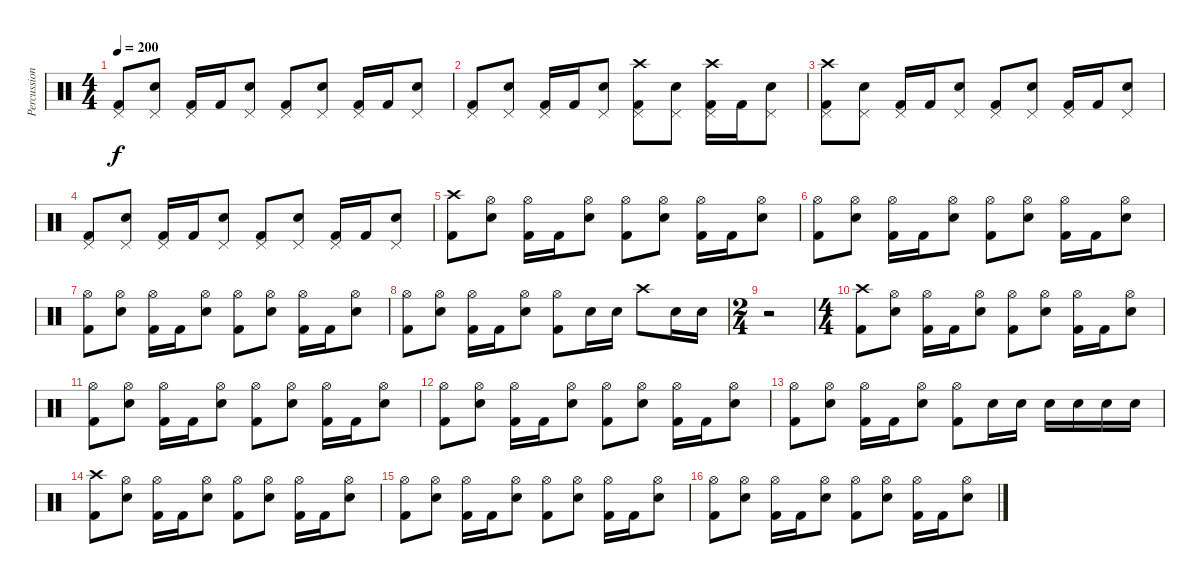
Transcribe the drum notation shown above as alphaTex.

\track ("Percussions" "Percussion") {instrument percussion}
\staff {score}
\articulation defaults
\ts (4 4)
\tempo 200
\clef neutral
\ks c
("Pedal Hi-Hat (hit)" "Kick (hit) 2").8{dy f} ("Pedal Hi-Hat (hit)" "Electric Snare (hit)").8 ("Pedal Hi-Hat (hit)" "Kick (hit) 2").16 "Kick (hit) 2".16 ("Pedal Hi-Hat (hit)" "Electric Snare (hit)").8 ("Pedal Hi-Hat (hit)" "Kick (hit) 2").8 ("Pedal Hi-Hat (hit)" "Electric Snare (hit)").8 ("Pedal Hi-Hat (hit)" "Kick (hit) 2").16 "Kick (hit) 2".16 ("Pedal Hi-Hat (hit)" "Electric Snare (hit)").8 |
("Pedal Hi-Hat (hit)" "Kick (hit) 2").8 ("Pedal Hi-Hat (hit)" "Electric Snare (hit)").8 ("Pedal Hi-Hat (hit)" "Kick (hit) 2").16 "Kick (hit) 2".16 ("Pedal Hi-Hat (hit)" "Electric Snare (hit)").8 ("Crash high (hit)" "Pedal Hi-Hat (hit)" "Kick (hit) 2").8 ("Pedal Hi-Hat (hit)" "Electric Snare (hit)").8 ("Crash high (hit)" "Pedal Hi-Hat (hit)" "Kick (hit) 2").16 "Kick (hit) 2".16 ("Pedal Hi-Hat (hit)" "Electric Snare (hit)").8 |
("Crash high (hit)" "Pedal Hi-Hat (hit)" "Kick (hit) 2").8 ("Pedal Hi-Hat (hit)" "Electric Snare (hit)").8 ("Pedal Hi-Hat (hit)" "Kick (hit) 2").16 "Kick (hit) 2".16 ("Pedal Hi-Hat (hit)" "Electric Snare (hit)").8 ("Pedal Hi-Hat (hit)" "Kick (hit) 2").8 ("Pedal Hi-Hat (hit)" "Electric Snare (hit)").8 ("Pedal Hi-Hat (hit)" "Kick (hit) 2").16 "Kick (hit) 2".16 ("Pedal Hi-Hat (hit)" "Electric Snare (hit)").8 |
("Pedal Hi-Hat (hit)" "Kick (hit) 2").8 ("Pedal Hi-Hat (hit)" "Electric Snare (hit)").8 ("Pedal Hi-Hat (hit)" "Kick (hit) 2").16 "Kick (hit) 2".16 ("Pedal Hi-Hat (hit)" "Electric Snare (hit)").8 ("Pedal Hi-Hat (hit)" "Kick (hit) 2").8 ("Pedal Hi-Hat (hit)" "Electric Snare (hit)").8 ("Pedal Hi-Hat (hit)" "Kick (hit) 2").16 "Kick (hit) 2".16 ("Pedal Hi-Hat (hit)" "Electric Snare (hit)").8 |
("Crash high (hit)" "Kick (hit) 2").8 ("Hi-Hat (open)" "Electric Snare (hit)").8 ("Hi-Hat (open)" "Kick (hit) 2").16 "Kick (hit) 2".16 ("Hi-Hat (open)" "Electric Snare (hit)").8 ("Hi-Hat (open)" "Kick (hit) 2").8 ("Hi-Hat (open)" "Electric Snare (hit)").8 ("Hi-Hat (open)" "Kick (hit) 2").16 "Kick (hit) 2".16 ("Hi-Hat (open)" "Electric Snare (hit)").8 |
("Hi-Hat (open)" "Kick (hit) 2").8 ("Hi-Hat (open)" "Electric Snare (hit)").8 ("Hi-Hat (open)" "Kick (hit) 2").16 "Kick (hit) 2".16 ("Hi-Hat (open)" "Electric Snare (hit)").8 ("Hi-Hat (open)" "Kick (hit) 2").8 ("Hi-Hat (open)" "Electric Snare (hit)").8 ("Hi-Hat (open)" "Kick (hit) 2").16 "Kick (hit) 2".16 ("Hi-Hat (open)" "Electric Snare (hit)").8 |
("Hi-Hat (open)" "Kick (hit) 2").8 ("Hi-Hat (open)" "Electric Snare (hit)").8 ("Hi-Hat (open)" "Kick (hit) 2").16 "Kick (hit) 2".16 ("Hi-Hat (open)" "Electric Snare (hit)").8 ("Hi-Hat (open)" "Kick (hit) 2").8 ("Hi-Hat (open)" "Electric Snare (hit)").8 ("Hi-Hat (open)" "Kick (hit) 2").16 "Kick (hit) 2".16 ("Hi-Hat (open)" "Electric Snare (hit)").8 |
("Hi-Hat (open)" "Kick (hit) 2").8 ("Hi-Hat (open)" "Electric Snare (hit)").8 ("Hi-Hat (open)" "Kick (hit) 2").16 "Kick (hit) 2".16 ("Hi-Hat (open)" "Electric Snare (hit)").8 ("Hi-Hat (open)" "Kick (hit) 2").8 "Electric Snare (hit)".16 "Electric Snare (hit)".16 "Crash high (hit)".8 "Electric Snare (hit)".16 "Electric Snare (hit)".16 |
\ts (2 4)
r.2 |
\ts (4 4)
("Crash high (hit)" "Kick (hit) 2").8 ("Hi-Hat (open)" "Electric Snare (hit)").8 ("Hi-Hat (open)" "Kick (hit) 2").16 "Kick (hit) 2".16 ("Hi-Hat (open)" "Electric Snare (hit)").8 ("Hi-Hat (open)" "Kick (hit) 2").8 ("Hi-Hat (open)" "Electric Snare (hit)").8 ("Hi-Hat (open)" "Kick (hit) 2").16 "Kick (hit) 2".16 ("Hi-Hat (open)" "Electric Snare (hit)").8 |
("Hi-Hat (open)" "Kick (hit) 2").8 ("Hi-Hat (open)" "Electric Snare (hit)").8 ("Hi-Hat (open)" "Kick (hit) 2").16 "Kick (hit) 2".16 ("Hi-Hat (open)" "Electric Snare (hit)").8 ("Hi-Hat (open)" "Kick (hit) 2").8 ("Hi-Hat (open)" "Electric Snare (hit)").8 ("Hi-Hat (open)" "Kick (hit) 2").16 "Kick (hit) 2".16 ("Hi-Hat (open)" "Electric Snare (hit)").8 |
("Hi-Hat (open)" "Kick (hit) 2").8 ("Hi-Hat (open)" "Electric Snare (hit)").8 ("Hi-Hat (open)" "Kick (hit) 2").16 "Kick (hit) 2".16 ("Hi-Hat (open)" "Electric Snare (hit)").8 ("Hi-Hat (open)" "Kick (hit) 2").8 ("Hi-Hat (open)" "Electric Snare (hit)").8 ("Hi-Hat (open)" "Kick (hit) 2").16 "Kick (hit) 2".16 ("Hi-Hat (open)" "Electric Snare (hit)").8 |
("Hi-Hat (open)" "Kick (hit) 2").8 ("Hi-Hat (open)" "Electric Snare (hit)").8 ("Hi-Hat (open)" "Kick (hit) 2").16 "Kick (hit) 2".16 ("Hi-Hat (open)" "Electric Snare (hit)").8 ("Hi-Hat (open)" "Kick (hit) 2").8 "Electric Snare (hit)".16 "Electric Snare (hit)".16 "Electric Snare (hit)".16 "Electric Snare (hit)".16 "Electric Snare (hit)".16 "Electric Snare (hit)".16 |
("Crash high (hit)" "Kick (hit) 2").8 ("Hi-Hat (open)" "Electric Snare (hit)").8 ("Hi-Hat (open)" "Kick (hit) 2").16 "Kick (hit) 2".16 ("Hi-Hat (open)" "Electric Snare (hit)").8 ("Hi-Hat (open)" "Kick (hit) 2").8 ("Hi-Hat (open)" "Electric Snare (hit)").8 ("Hi-Hat (open)" "Kick (hit) 2").16 "Kick (hit) 2".16 ("Hi-Hat (open)" "Electric Snare (hit)").8 |
("Hi-Hat (open)" "Kick (hit) 2").8 ("Hi-Hat (open)" "Electric Snare (hit)").8 ("Hi-Hat (open)" "Kick (hit) 2").16 "Kick (hit) 2".16 ("Hi-Hat (open)" "Electric Snare (hit)").8 ("Hi-Hat (open)" "Kick (hit) 2").8 ("Hi-Hat (open)" "Electric Snare (hit)").8 ("Hi-Hat (open)" "Kick (hit) 2").16 "Kick (hit) 2".16 ("Hi-Hat (open)" "Electric Snare (hit)").8 |
("Hi-Hat (open)" "Kick (hit) 2").8 ("Hi-Hat (open)" "Electric Snare (hit)").8 ("Hi-Hat (open)" "Kick (hit) 2").16 "Kick (hit) 2".16 ("Hi-Hat (open)" "Electric Snare (hit)").8 ("Hi-Hat (open)" "Kick (hit) 2").8 ("Hi-Hat (open)" "Electric Snare (hit)").8 ("Hi-Hat (open)" "Kick (hit) 2").16 "Kick (hit) 2".16 ("Hi-Hat (open)" "Electric Snare (hit)").8
